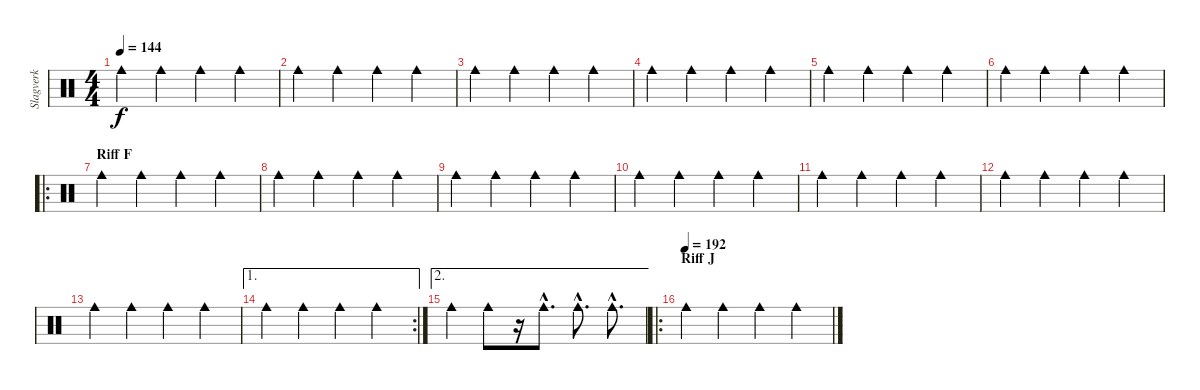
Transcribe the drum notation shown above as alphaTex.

\track ("Slagverk" "Slagverk") {instrument percussion}
\staff {score}
\articulation defaults
\ts (4 4)
\tempo 144
\clef neutral
\ks c "Cowbell medium (hit)".4{dy f} "Cowbell medium (hit)".4 "Cowbell medium (hit)".4 "Cowbell medium (hit)".4
|
"Cowbell medium (hit)".4 "Cowbell medium (hit)".4 "Cowbell medium (hit)".4 "Cowbell medium (hit)".4 |
"Cowbell medium (hit)".4 "Cowbell medium (hit)".4 "Cowbell medium (hit)".4 "Cowbell medium (hit)".4 |
"Cowbell medium (hit)".4 "Cowbell medium (hit)".4 "Cowbell medium (hit)".4 "Cowbell medium (hit)".4 |
"Cowbell medium (hit)".4 "Cowbell medium (hit)".4 "Cowbell medium (hit)".4 "Cowbell medium (hit)".4 |
"Cowbell medium (hit)".4 "Cowbell medium (hit)".4 "Cowbell medium (hit)".4 "Cowbell medium (hit)".4 |
\ro
\section ("" "Riff F")
"Cowbell medium (hit)".4 "Cowbell medium (hit)".4 "Cowbell medium (hit)".4 "Cowbell medium (hit)".4 |
"Cowbell medium (hit)".4 "Cowbell medium (hit)".4 "Cowbell medium (hit)".4 "Cowbell medium (hit)".4 |
"Cowbell medium (hit)".4 "Cowbell medium (hit)".4 "Cowbell medium (hit)".4 "Cowbell medium (hit)".4 |
"Cowbell medium (hit)".4 "Cowbell medium (hit)".4 "Cowbell medium (hit)".4 "Cowbell medium (hit)".4 |
"Cowbell medium (hit)".4 "Cowbell medium (hit)".4 "Cowbell medium (hit)".4 "Cowbell medium (hit)".4 |
"Cowbell medium (hit)".4 "Cowbell medium (hit)".4 "Cowbell medium (hit)".4 "Cowbell medium (hit)".4 |
"Cowbell medium (hit)".4 "Cowbell medium (hit)".4 "Cowbell medium (hit)".4 "Cowbell medium (hit)".4 |
\ae 1
\rc 2 "Cowbell medium (hit)".4 "Cowbell medium (hit)".4 "Cowbell medium (hit)".4 "Cowbell medium (hit)".4
|
\ae 2 "Cowbell medium (hit)".4 "Cowbell medium (hit)".8
r.16 "Cowbell medium (hit)"{hac}.8{d} "Cowbell medium (hit)"{hac}.8{d} "Cowbell medium (hit)"{hac}.8{d} |
\ro
\section ("" "Riff J")
\tempo (192)
"Cowbell medium (hit)".4 "Cowbell medium (hit)".4 "Cowbell medium (hit)".4 "Cowbell medium (hit)".4
